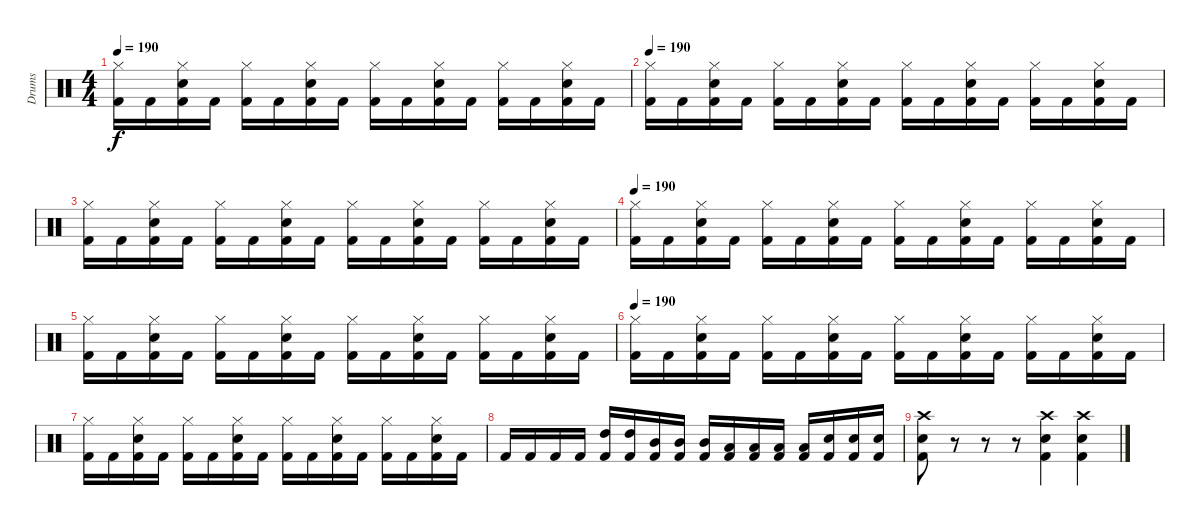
\track ("Drums" "Drums") {instrument percussion}
\staff {score}
\articulation defaults
\ts (4 4)
\tempo 190
\clef neutral
\ks c
("Kick (hit) 2" "Hi-Hat (closed)").16{dy f} "Kick (hit) 2".16 ("Kick (hit) 2" "Hi-Hat (closed)" "Electric Snare (hit)").16 "Kick (hit) 2".16 ("Kick (hit) 2" "Hi-Hat (closed)").16 "Kick (hit) 2".16 ("Kick (hit) 2" "Hi-Hat (closed)" "Electric Snare (hit)").16 "Kick (hit) 2".16 ("Kick (hit) 2" "Hi-Hat (closed)").16 "Kick (hit) 2".16 ("Kick (hit) 2" "Hi-Hat (closed)" "Electric Snare (hit)").16 "Kick (hit) 2".16 ("Kick (hit) 2" "Hi-Hat (closed)").16 "Kick (hit) 2".16 ("Kick (hit) 2" "Hi-Hat (closed)" "Electric Snare (hit)").16 "Kick (hit) 2".16 |
\tempo 190
("Kick (hit) 2" "Hi-Hat (closed)").16 "Kick (hit) 2".16 ("Kick (hit) 2" "Hi-Hat (closed)" "Electric Snare (hit)").16 "Kick (hit) 2".16 ("Kick (hit) 2" "Hi-Hat (closed)").16 "Kick (hit) 2".16 ("Kick (hit) 2" "Hi-Hat (closed)" "Electric Snare (hit)").16 "Kick (hit) 2".16 ("Kick (hit) 2" "Hi-Hat (closed)").16 "Kick (hit) 2".16 ("Kick (hit) 2" "Hi-Hat (closed)" "Electric Snare (hit)").16 "Kick (hit) 2".16 ("Kick (hit) 2" "Hi-Hat (closed)").16 "Kick (hit) 2".16 ("Kick (hit) 2" "Hi-Hat (closed)" "Electric Snare (hit)").16 "Kick (hit) 2".16 |
("Kick (hit) 2" "Hi-Hat (closed)").16 "Kick (hit) 2".16 ("Kick (hit) 2" "Hi-Hat (closed)" "Electric Snare (hit)").16 "Kick (hit) 2".16 ("Kick (hit) 2" "Hi-Hat (closed)").16 "Kick (hit) 2".16 ("Kick (hit) 2" "Hi-Hat (closed)" "Electric Snare (hit)").16 "Kick (hit) 2".16 ("Kick (hit) 2" "Hi-Hat (closed)").16 "Kick (hit) 2".16 ("Kick (hit) 2" "Hi-Hat (closed)" "Electric Snare (hit)").16 "Kick (hit) 2".16 ("Kick (hit) 2" "Hi-Hat (closed)").16 "Kick (hit) 2".16 ("Kick (hit) 2" "Hi-Hat (closed)" "Electric Snare (hit)").16 "Kick (hit) 2".16 |
\tempo 190
("Kick (hit) 2" "Hi-Hat (closed)").16 "Kick (hit) 2".16 ("Kick (hit) 2" "Hi-Hat (closed)" "Electric Snare (hit)").16 "Kick (hit) 2".16 ("Kick (hit) 2" "Hi-Hat (closed)").16 "Kick (hit) 2".16 ("Kick (hit) 2" "Hi-Hat (closed)" "Electric Snare (hit)").16 "Kick (hit) 2".16 ("Kick (hit) 2" "Hi-Hat (closed)").16 "Kick (hit) 2".16 ("Kick (hit) 2" "Hi-Hat (closed)" "Electric Snare (hit)").16 "Kick (hit) 2".16 ("Kick (hit) 2" "Hi-Hat (closed)").16 "Kick (hit) 2".16 ("Kick (hit) 2" "Hi-Hat (closed)" "Electric Snare (hit)").16 "Kick (hit) 2".16 |
("Kick (hit) 2" "Hi-Hat (closed)").16 "Kick (hit) 2".16 ("Kick (hit) 2" "Hi-Hat (closed)" "Electric Snare (hit)").16 "Kick (hit) 2".16 ("Kick (hit) 2" "Hi-Hat (closed)").16 "Kick (hit) 2".16 ("Kick (hit) 2" "Hi-Hat (closed)" "Electric Snare (hit)").16 "Kick (hit) 2".16 ("Kick (hit) 2" "Hi-Hat (closed)").16 "Kick (hit) 2".16 ("Kick (hit) 2" "Hi-Hat (closed)" "Electric Snare (hit)").16 "Kick (hit) 2".16 ("Kick (hit) 2" "Hi-Hat (closed)").16 "Kick (hit) 2".16 ("Kick (hit) 2" "Hi-Hat (closed)" "Electric Snare (hit)").16 "Kick (hit) 2".16 |
\tempo 190
("Kick (hit) 2" "Hi-Hat (closed)").16 "Kick (hit) 2".16 ("Kick (hit) 2" "Hi-Hat (closed)" "Electric Snare (hit)").16 "Kick (hit) 2".16 ("Kick (hit) 2" "Hi-Hat (closed)").16 "Kick (hit) 2".16 ("Kick (hit) 2" "Hi-Hat (closed)" "Electric Snare (hit)").16 "Kick (hit) 2".16 ("Kick (hit) 2" "Hi-Hat (closed)").16 "Kick (hit) 2".16 ("Kick (hit) 2" "Hi-Hat (closed)" "Electric Snare (hit)").16 "Kick (hit) 2".16 ("Kick (hit) 2" "Hi-Hat (closed)").16 "Kick (hit) 2".16 ("Kick (hit) 2" "Hi-Hat (closed)" "Electric Snare (hit)").16 "Kick (hit) 2".16 |
("Kick (hit) 2" "Hi-Hat (closed)").16 "Kick (hit) 2".16 ("Kick (hit) 2" "Hi-Hat (closed)" "Electric Snare (hit)").16 "Kick (hit) 2".16 ("Kick (hit) 2" "Hi-Hat (closed)").16 "Kick (hit) 2".16 ("Kick (hit) 2" "Hi-Hat (closed)" "Electric Snare (hit)").16 "Kick (hit) 2".16 ("Kick (hit) 2" "Hi-Hat (closed)").16 "Kick (hit) 2".16 ("Kick (hit) 2" "Hi-Hat (closed)" "Electric Snare (hit)").16 "Kick (hit) 2".16 ("Kick (hit) 2" "Hi-Hat (closed)").16 "Kick (hit) 2".16 ("Kick (hit) 2" "Hi-Hat (closed)" "Electric Snare (hit)").16 "Kick (hit) 2".16 |
"Kick (hit) 2".16 "Kick (hit) 2".16 "Kick (hit) 2".16 "Kick (hit) 2".16 ("Kick (hit) 2" "High Tom (hit)").16 ("Kick (hit) 2" "High Tom (hit)").16 ("Kick (hit) 2" "Mid Tom (hit)").16 ("Kick (hit) 2" "Mid Tom (hit)").16 ("Kick (hit) 2" "Mid Tom (hit)").16 ("Kick (hit) 2" "Low Tom (hit)").16 ("Kick (hit) 2" "Low Tom (hit)").16 ("Kick (hit) 2" "Low Tom (hit)").16 ("Kick (hit) 2" "Low Tom (hit)").16 ("Kick (hit) 2" "Electric Snare (hit)").16 ("Kick (hit) 2" "Electric Snare (hit)").16 ("Kick (hit) 2" "Electric Snare (hit)").16 |
("Crash high (hit)" "Electric Snare (hit)" "Kick (hit) 2").8 r.8 r.8 r.8 ("Crash high (hit)" "Electric Snare (hit)" "Kick (hit) 2").4 ("Crash high (hit)" "Electric Snare (hit)" "Kick (hit) 2").4
